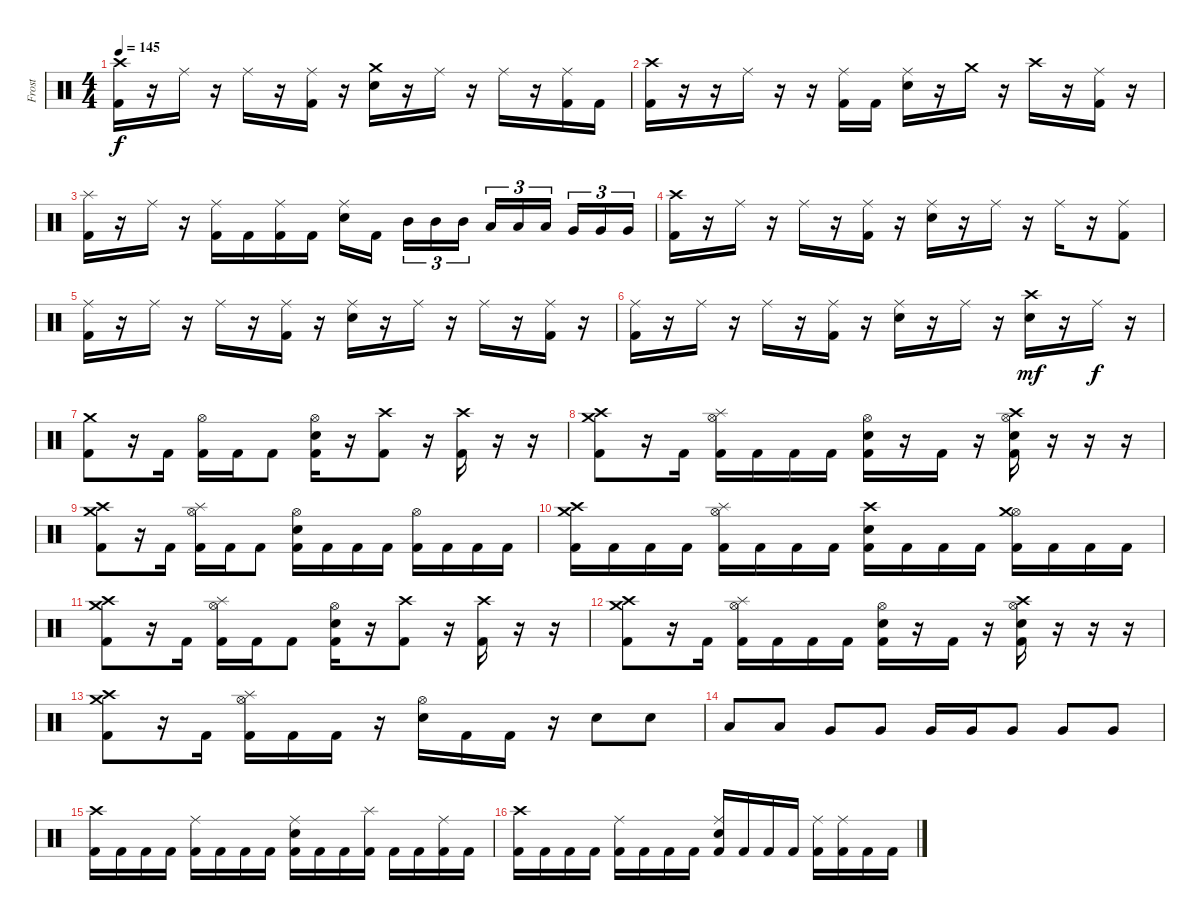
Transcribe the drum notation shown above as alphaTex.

\track ("Frost" "Frost") {instrument percussion}
\staff {score}
\articulation defaults
\ts (4 4)
\tempo 145
\clef neutral
\ks c
("Crash high (hit)" "Kick (hit) 2").16{dy f} r.16 "Ride (middle)".16 r.16 "Ride (middle)".16 r.16 ("Ride (middle)" "Kick (hit) 2").16 r.16 ("Crash medium (hit)" "Electric Snare (hit)").16 r.16 "Ride (middle)".16 r.16 "Ride (middle)".16 r.16 ("Ride (middle)" "Kick (hit) 2").16 "Kick (hit) 2".16 |
("Crash high (hit)" "Kick (hit) 2").16 r.16 r.16 "Ride (middle)".16 r.16 r.16 ("Ride (middle)" "Kick (hit) 2").16 "Kick (hit) 2".16 ("Ride (middle)" "Electric Snare (hit)").16 r.16 "Crash medium (hit)".16 r.16 "Crash high (hit)".16 r.16 ("Ride (middle)" "Kick (hit) 2").16 r.16 |
("Splash (hit)" "Kick (hit) 2").16 r.16 "Ride (middle)".16 r.16 ("Ride (middle)" "Kick (hit) 2").16 "Kick (hit) 2".16 ("Ride (middle)" "Kick (hit) 2").16 "Kick (hit) 2".16 ("Ride (middle)" "Electric Snare (hit)").16 "Kick (hit) 2".16 "Mid Tom (hit)".16{tu (3 2)} "Mid Tom (hit)".16{tu (3 2)} "Mid Tom (hit)".16{tu (3 2)} "Low Tom (hit)".16{tu (3 2)} "Low Tom (hit)".16{tu (3 2)} "Low Tom (hit)".16{tu (3 2)} "Very Low Tom (hit)".16{tu (3 2)} "Very Low Tom (hit)".16{tu (3 2)} "Very Low Tom (hit)".16{tu (3 2)} |
("Crash high (hit)" "Kick (hit) 2").16 r.16 "Ride (middle)".16 r.16 "Ride (middle)".16 r.16 ("Ride (middle)" "Kick (hit) 2").16 r.16 ("Ride (middle)" "Electric Snare (hit)").16 r.16 "Ride (middle)".16 r.16 "Ride (middle)".16 r.16 ("Ride (middle)" "Kick (hit) 2").8 |
("Ride (middle)" "Kick (hit) 2").16 r.16 "Ride (middle)".16 r.16 "Ride (middle)".16 r.16 ("Ride (middle)" "Kick (hit) 2").16 r.16 ("Ride (middle)" "Electric Snare (hit)").16 r.16 "Ride (middle)".16 r.16 "Ride (middle)".16 r.16 ("Ride (middle)" "Kick (hit) 2").16 r.16 |
("Ride (middle)" "Kick (hit) 2").16 r.16 "Ride (middle)".16 r.16 "Ride (middle)".16 r.16 ("Ride (middle)" "Kick (hit) 2").16 r.16 ("Ride (middle)" "Electric Snare (hit)").16 r.16 "Ride (middle)".16 r.16 ("Crash high (hit)" "Electric Snare (hit)").16{dy mf} r.16 "Ride (middle)".16{dy f} r.16 |
("Crash medium (hit)" "Kick (hit) 2").8 r.16 "Kick (hit) 2".16 ("Hi-Hat (open)" "Kick (hit) 2").16 "Kick (hit) 2".16 "Kick (hit) 2".8 ("Hi-Hat (open)" "Electric Snare (hit)" "Kick (hit) 2").16 r.16 ("Crash high (hit)" "Kick (hit) 2").8 r.16 ("Crash high (hit)" "Kick (hit) 2").16 r.16 r.16 |
("Crash medium (hit)" "Crash high (hit)" "Kick (hit) 2").8 r.16 "Kick (hit) 2".16 ("Hi-Hat (open)" "Splash (hit)" "Kick (hit) 2").16 "Kick (hit) 2".16 "Kick (hit) 2".16 "Kick (hit) 2".16 ("Hi-Hat (open)" "Electric Snare (hit)" "Kick (hit) 2").16 r.16 "Kick (hit) 2".16 r.16 ("Hi-Hat (open)" "Crash high (hit)" "Electric Snare (hit)" "Kick (hit) 2").16 r.16 r.16 r.16 |
("Crash medium (hit)" "Crash high (hit)" "Kick (hit) 2").8 r.16 "Kick (hit) 2".16 ("Hi-Hat (open)" "Splash (hit)" "Kick (hit) 2").16 "Kick (hit) 2".16 "Kick (hit) 2".8 ("Hi-Hat (open)" "Electric Snare (hit)" "Kick (hit) 2").16 "Kick (hit) 2".16 "Kick (hit) 2".16 "Kick (hit) 2".16 ("Hi-Hat (open)" "Kick (hit) 2").16 "Kick (hit) 2".16 "Kick (hit) 2".16 "Kick (hit) 2".16 |
("Crash medium (hit)" "Crash high (hit)" "Kick (hit) 2").16 "Kick (hit) 2".16 "Kick (hit) 2".16 "Kick (hit) 2".16 ("Hi-Hat (open)" "Splash (hit)" "Kick (hit) 2").16 "Kick (hit) 2".16 "Kick (hit) 2".16 "Kick (hit) 2".16 ("Crash high (hit)" "Electric Snare (hit)" "Kick (hit) 2").16 "Kick (hit) 2".16 "Kick (hit) 2".16 "Kick (hit) 2".16 ("Hi-Hat (open)" "Crash medium (hit)" "Kick (hit) 2").16 "Kick (hit) 2".16 "Kick (hit) 2".16 "Kick (hit) 2".16 |
("Crash medium (hit)" "Crash high (hit)" "Kick (hit) 2").8 r.16 "Kick (hit) 2".16 ("Hi-Hat (open)" "Splash (hit)" "Kick (hit) 2").16 "Kick (hit) 2".16 "Kick (hit) 2".8 ("Hi-Hat (open)" "Electric Snare (hit)" "Kick (hit) 2").16 r.16 ("Crash high (hit)" "Kick (hit) 2").8 r.16 ("Crash high (hit)" "Kick (hit) 2").16 r.16 r.16 |
("Crash medium (hit)" "Crash high (hit)" "Kick (hit) 2").8 r.16 "Kick (hit) 2".16 ("Hi-Hat (open)" "Splash (hit)" "Kick (hit) 2").16 "Kick (hit) 2".16 "Kick (hit) 2".16 "Kick (hit) 2".16 ("Hi-Hat (open)" "Electric Snare (hit)" "Kick (hit) 2").16 r.16 "Kick (hit) 2".16 r.16 ("Hi-Hat (open)" "Crash high (hit)" "Electric Snare (hit)" "Kick (hit) 2").16 r.16 r.16 r.16 |
("Crash medium (hit)" "Crash high (hit)" "Kick (hit) 2").8 r.16 "Kick (hit) 2".16 ("Hi-Hat (open)" "Splash (hit)" "Kick (hit) 2").16 "Kick (hit) 2".16 "Kick (hit) 2".16 r.16 ("Hi-Hat (open)" "Electric Snare (hit)").16 "Kick (hit) 2".16 "Kick (hit) 2".16 r.16 "Electric Snare (hit)".8 "Electric Snare (hit)".8 |
"Low Tom (hit)".8 "Low Tom (hit)".8 "Very Low Tom (hit)".8 "Very Low Tom (hit)".8 "Very Low Tom (hit)".16 "Very Low Tom (hit)".16 "Very Low Tom (hit)".8 "Very Low Tom (hit)".8 "Very Low Tom (hit)".8 |
("Crash high (hit)" "Kick (hit) 2").16 "Kick (hit) 2".16 "Kick (hit) 2".16 "Kick (hit) 2".16 ("Ride (middle)" "Kick (hit) 2").16 "Kick (hit) 2".16 "Kick (hit) 2".16 "Kick (hit) 2".16 ("Ride (middle)" "Electric Snare (hit)" "Kick (hit) 2").16 "Kick (hit) 2".16 "Kick (hit) 2".16 ("Splash (hit)" "Kick (hit) 2").16 "Kick (hit) 2".16 "Kick (hit) 2".16 ("Ride (middle)" "Kick (hit) 2").16 "Kick (hit) 2".16 |
("Crash high (hit)" "Kick (hit) 2").16 "Kick (hit) 2".16 "Kick (hit) 2".16 "Kick (hit) 2".16 ("Ride (middle)" "Kick (hit) 2").16 "Kick (hit) 2".16 "Kick (hit) 2".16 "Kick (hit) 2".16 ("Ride (middle)" "Electric Snare (hit)" "Kick (hit) 2").16 "Kick (hit) 2".16 "Kick (hit) 2".16 "Kick (hit) 2".16 ("Ride (middle)" "Kick (hit) 2").16 ("Ride (middle)" "Kick (hit) 2").16 "Kick (hit) 2".16 "Kick (hit) 2".16
